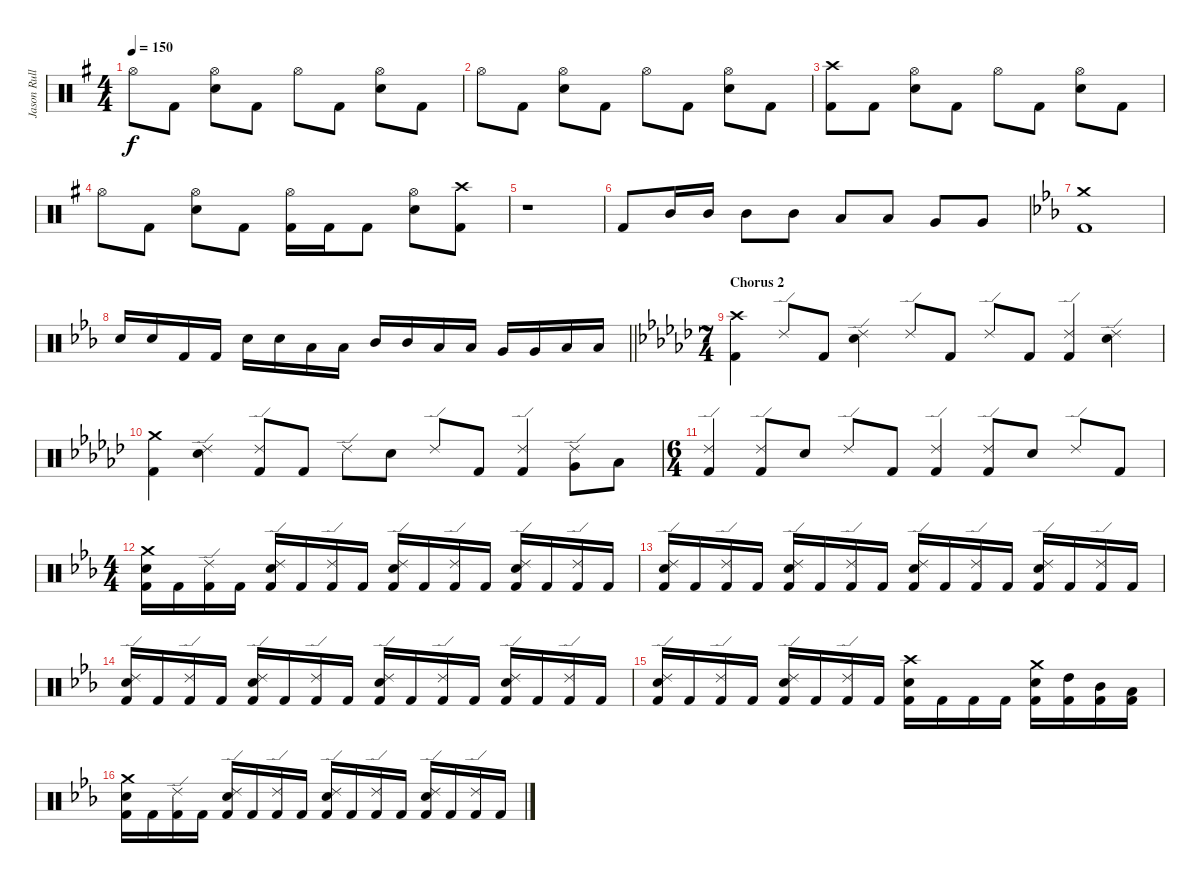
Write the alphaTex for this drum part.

\track ("Jason Rullo" "Jason Rull") {instrument percussion}
\staff {score}
\articulation defaults
\ts (4 4)
\tempo 150
\clef neutral
\ks eminor "Hi-Hat (open)".8{dy f} "Kick (hit) 2".8
("Hi-Hat (open)" "Electric Snare (hit)").8 "Kick (hit) 2".8 "Hi-Hat (open)".8 "Kick (hit) 2".8 ("Hi-Hat (open)" "Electric Snare (hit)").8 "Kick (hit) 2".8 |
"Hi-Hat (open)".8 "Kick (hit) 2".8 ("Hi-Hat (open)" "Electric Snare (hit)").8 "Kick (hit) 2".8 "Hi-Hat (open)".8 "Kick (hit) 2".8 ("Hi-Hat (open)" "Electric Snare (hit)").8 "Kick (hit) 2".8 |
("Crash high (hit)" "Kick (hit) 2").8 "Kick (hit) 2".8 ("Hi-Hat (open)" "Electric Snare (hit)").8 "Kick (hit) 2".8 "Hi-Hat (open)".8 "Kick (hit) 2".8 ("Hi-Hat (open)" "Electric Snare (hit)").8 "Kick (hit) 2".8 |
"Hi-Hat (open)".8 "Kick (hit) 2".8 ("Hi-Hat (open)" "Electric Snare (hit)").8 "Kick (hit) 2".8 ("Hi-Hat (open)" "Kick (hit) 2").16 "Kick (hit) 2".16 "Kick (hit) 2".8 ("Hi-Hat (open)" "Electric Snare (hit)").8 ("Crash high (hit)" "Kick (hit) 2").8 |
r.1 |
"Kick (hit) 2".8 "Mid Tom (hit)".16 "Mid Tom (hit)".16 "Mid Tom (hit)".8 "Mid Tom (hit)".8 "Low Tom (hit)".8 "Low Tom (hit)".8 "Very Low Tom (hit)".8 "Very Low Tom (hit)".8 |
\ks cminor
("Crash medium (hit)" "Kick (hit) 2").1 |
\barLineRight lightlight "Electric Snare (hit)".16 "Electric Snare (hit)".16 "Kick (hit) 2".16 "Kick (hit) 2".16 "Electric Snare (hit)".16 "Electric Snare (hit)".16 "Low Tom (hit)".16 "Low Tom (hit)".16 "Mid Tom (hit)".16 "Mid Tom (hit)".16 "Low Tom (hit)".16 "Low Tom (hit)".16 "Very Low Tom (hit)".16 "Very Low Tom (hit)".16 "Low Floor Tom (hit)".16 "Low Floor Tom (hit)".16
|
\ts (7 4)
\section ("" "Chorus 2")
\ks ebminor
("Crash high (hit)" "Kick (hit) 2").4{volume 16 balance 8} "Ride (edge) 2".8 "Kick (hit) 2".8 ("Ride (edge) 2" "Electric Snare (hit)").4 "Ride (edge) 2".8 "Kick (hit) 2".8 "Ride (edge) 2".8 "Kick (hit) 2".8 ("Ride (edge) 2" "Kick (hit) 2").4 ("Ride (edge) 2" "Electric Snare (hit)").4 |
("Crash medium (hit)" "Kick (hit) 2").4 ("Ride (edge) 2" "Electric Snare (hit)").4 ("Ride (edge) 2" "Kick (hit) 2").8 "Kick (hit) 2".8 "Ride (edge) 2".8 "Electric Snare (hit)".8 "Ride (edge) 2".8 "Kick (hit) 2".8 ("Ride (edge) 2" "Kick (hit) 2").4 ("Ride (edge) 2" "Very Low Tom (hit)").8 "Low Floor Tom (hit)".8 |
\ts (6 4)
("Ride (edge) 2" "Kick (hit) 2").4 ("Ride (edge) 2" "Kick (hit) 2").8 "Electric Snare (hit)".8 "Ride (edge) 2".8 "Kick (hit) 2".8 ("Ride (edge) 2" "Kick (hit) 2").4 ("Ride (edge) 2" "Kick (hit) 2").8 "Electric Snare (hit)".8 "Ride (edge) 2".8 "Kick (hit) 2".8 |
\ts (4 4)
\ks cminor
("Crash medium (hit)" "Electric Snare (hit)" "Kick (hit) 2").16 "Kick (hit) 2".16 ("Ride (edge) 2" "Kick (hit) 2").16 "Kick (hit) 2".16 ("Ride (edge) 2" "Electric Snare (hit)" "Kick (hit) 2").16 "Kick (hit) 2".16 ("Ride (edge) 2" "Kick (hit) 2").16 "Kick (hit) 2".16 ("Ride (edge) 2" "Electric Snare (hit)" "Kick (hit) 2").16 "Kick (hit) 2".16 ("Ride (edge) 2" "Kick (hit) 2").16 "Kick (hit) 2".16 ("Ride (edge) 2" "Electric Snare (hit)" "Kick (hit) 2").16 "Kick (hit) 2".16 ("Ride (edge) 2" "Kick (hit) 2").16 "Kick (hit) 2".16 |
("Ride (edge) 2" "Electric Snare (hit)" "Kick (hit) 2").16 "Kick (hit) 2".16 ("Ride (edge) 2" "Kick (hit) 2").16 "Kick (hit) 2".16 ("Ride (edge) 2" "Electric Snare (hit)" "Kick (hit) 2").16 "Kick (hit) 2".16 ("Ride (edge) 2" "Kick (hit) 2").16 "Kick (hit) 2".16 ("Ride (edge) 2" "Electric Snare (hit)" "Kick (hit) 2").16 "Kick (hit) 2".16 ("Ride (edge) 2" "Kick (hit) 2").16 "Kick (hit) 2".16 ("Ride (edge) 2" "Electric Snare (hit)" "Kick (hit) 2").16 "Kick (hit) 2".16 ("Ride (edge) 2" "Kick (hit) 2").16 "Kick (hit) 2".16 |
("Ride (edge) 2" "Electric Snare (hit)" "Kick (hit) 2").16 "Kick (hit) 2".16 ("Ride (edge) 2" "Kick (hit) 2").16 "Kick (hit) 2".16 ("Ride (edge) 2" "Electric Snare (hit)" "Kick (hit) 2").16 "Kick (hit) 2".16 ("Ride (edge) 2" "Kick (hit) 2").16 "Kick (hit) 2".16 ("Ride (edge) 2" "Electric Snare (hit)" "Kick (hit) 2").16 "Kick (hit) 2".16 ("Ride (edge) 2" "Kick (hit) 2").16 "Kick (hit) 2".16 ("Ride (edge) 2" "Electric Snare (hit)" "Kick (hit) 2").16 "Kick (hit) 2".16 ("Ride (edge) 2" "Kick (hit) 2").16 "Kick (hit) 2".16 |
("Ride (edge) 2" "Electric Snare (hit)" "Kick (hit) 2").16 "Kick (hit) 2".16 ("Ride (edge) 2" "Kick (hit) 2").16 "Kick (hit) 2".16 ("Ride (edge) 2" "Electric Snare (hit)" "Kick (hit) 2").16 "Kick (hit) 2".16 ("Ride (edge) 2" "Kick (hit) 2").16 "Kick (hit) 2".16 ("Crash high (hit)" "Electric Snare (hit)" "Kick (hit) 2").16 "Kick (hit) 2".16 "Kick (hit) 2".16 "Kick (hit) 2".16 ("Crash medium (hit)" "Electric Snare (hit)" "Kick (hit) 2").16 ("High Tom (hit)" "Kick (hit) 2").16 ("Mid Tom (hit)" "Kick (hit) 2").16 ("Low Tom (hit)" "Kick (hit) 2").16 |
("Crash medium (hit)" "Electric Snare (hit)" "Kick (hit) 2").16 "Kick (hit) 2".16 ("Ride (edge) 2" "Kick (hit) 2").16 "Kick (hit) 2".16 ("Ride (edge) 2" "Electric Snare (hit)" "Kick (hit) 2").16 "Kick (hit) 2".16 ("Ride (edge) 2" "Kick (hit) 2").16 "Kick (hit) 2".16 ("Ride (edge) 2" "Electric Snare (hit)" "Kick (hit) 2").16 "Kick (hit) 2".16 ("Ride (edge) 2" "Kick (hit) 2").16 "Kick (hit) 2".16 ("Ride (edge) 2" "Electric Snare (hit)" "Kick (hit) 2").16 "Kick (hit) 2".16 ("Ride (edge) 2" "Kick (hit) 2").16 "Kick (hit) 2".16
